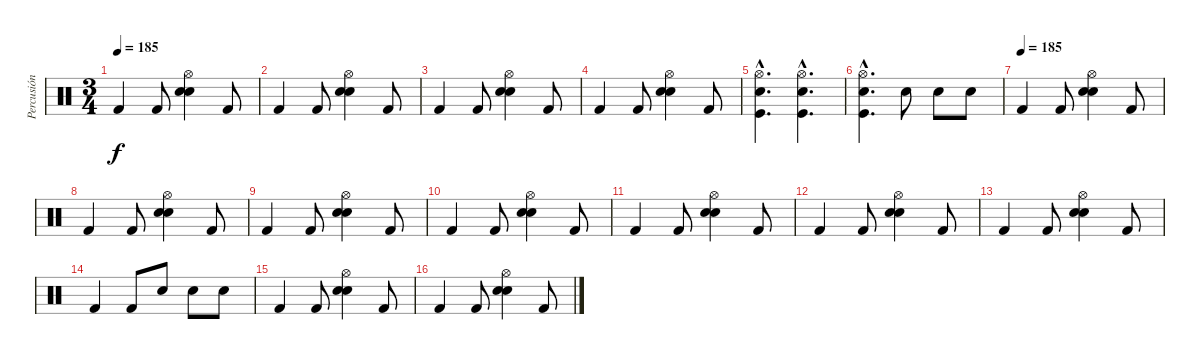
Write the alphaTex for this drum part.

\track ("Percusión" "Percusión") {instrument percussion}
\staff {score}
\articulation defaults
\ts (3 4)
\tempo 185
\clef neutral
\ks c "Kick (hit) 2".4{dy f} "Kick (hit) 2".8
("Hi-Hat (open)" "Electric Snare (hit)" "Snare (hit) 2").4 "Kick (hit) 2".8 |
"Kick (hit) 2".4 "Kick (hit) 2".8 ("Hi-Hat (open)" "Electric Snare (hit)" "Snare (hit) 2").4 "Kick (hit) 2".8 |
"Kick (hit) 2".4 "Kick (hit) 2".8 ("Hi-Hat (open)" "Electric Snare (hit)" "Snare (hit) 2").4 "Kick (hit) 2".8 |
"Kick (hit) 2".4 "Kick (hit) 2".8 ("Hi-Hat (open)" "Electric Snare (hit)" "Snare (hit) 2").4 "Kick (hit) 2".8 |
("Hi-Hat (open)"{hac} "Electric Snare (hit)"{hac} "Kick (hit)"{hac}).4{d} ("Hi-Hat (open)"{hac} "Electric Snare (hit)"{hac} "Kick (hit)"{hac}).4{d} |
("Hi-Hat (open)"{hac} "Electric Snare (hit)"{hac} "Kick (hit)"{hac}).4{d} "Electric Snare (hit)".8 "Electric Snare (hit)".8 "Electric Snare (hit)".8 |
\tempo (185)
"Kick (hit) 2".4 "Kick (hit) 2".8 ("Hi-Hat (open)" "Electric Snare (hit)" "Snare (hit) 2").4 "Kick (hit) 2".8 |
"Kick (hit) 2".4 "Kick (hit) 2".8 ("Hi-Hat (open)" "Electric Snare (hit)" "Snare (hit) 2").4 "Kick (hit) 2".8 |
"Kick (hit) 2".4 "Kick (hit) 2".8 ("Hi-Hat (open)" "Electric Snare (hit)" "Snare (hit) 2").4 "Kick (hit) 2".8 |
"Kick (hit) 2".4 "Kick (hit) 2".8 ("Hi-Hat (open)" "Electric Snare (hit)" "Snare (hit) 2").4 "Kick (hit) 2".8 |
"Kick (hit) 2".4 "Kick (hit) 2".8 ("Hi-Hat (open)" "Electric Snare (hit)" "Snare (hit) 2").4 "Kick (hit) 2".8 |
"Kick (hit) 2".4 "Kick (hit) 2".8 ("Hi-Hat (open)" "Electric Snare (hit)" "Snare (hit) 2").4 "Kick (hit) 2".8 |
"Kick (hit) 2".4 "Kick (hit) 2".8 ("Hi-Hat (open)" "Electric Snare (hit)" "Snare (hit) 2").4 "Kick (hit) 2".8 |
"Kick (hit) 2".4 "Kick (hit) 2".8 "Electric Snare (hit)".8 "Electric Snare (hit)".8 "Electric Snare (hit)".8 |
"Kick (hit) 2".4 "Kick (hit) 2".8 ("Hi-Hat (open)" "Electric Snare (hit)" "Snare (hit) 2").4 "Kick (hit) 2".8 |
"Kick (hit) 2".4 "Kick (hit) 2".8 ("Hi-Hat (open)" "Electric Snare (hit)" "Snare (hit) 2").4 "Kick (hit) 2".8
